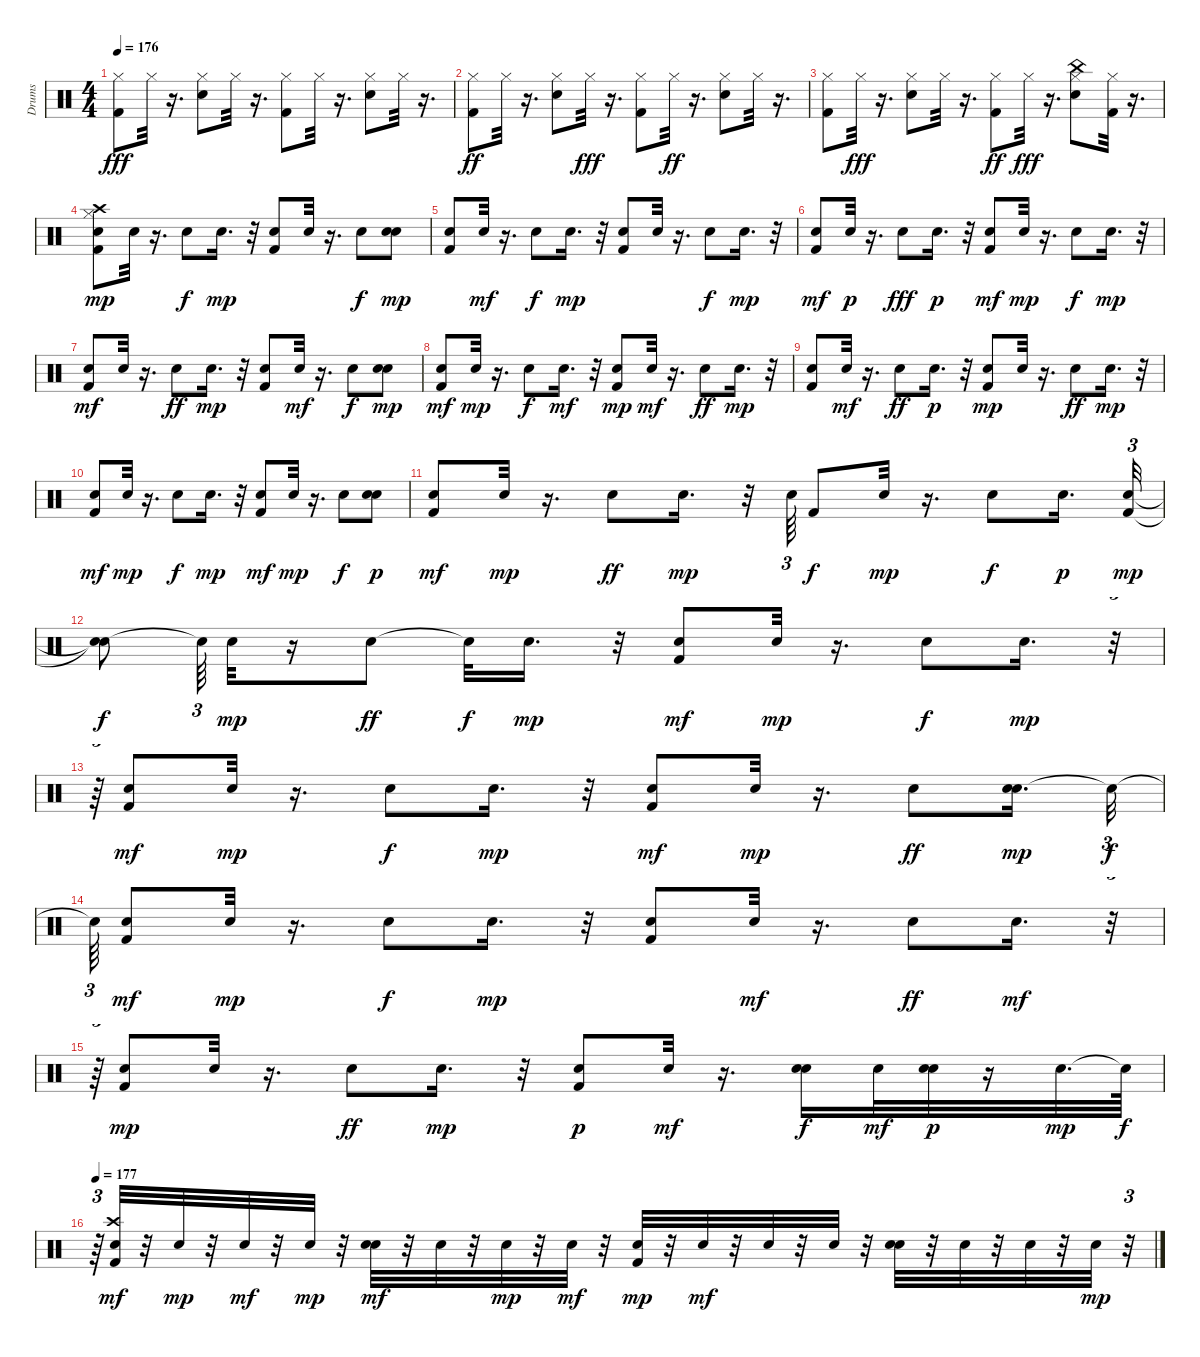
\track ("Drums" "Drums") {instrument percussion}
\staff {score}
\articulation defaults
\ts (4 4)
\tempo 176
\clef neutral
\ks c
("Hi-Hat (closed)" "Kick (hit) 2").8{dy fff} "Hi-Hat (closed)".32 r.16{d} ("Electric Snare (hit)" "Hi-Hat (closed)").8 "Hi-Hat (closed)".32 r.16{d} ("Kick (hit) 2" "Hi-Hat (closed)").8 "Hi-Hat (closed)".32 r.16{d} ("Hi-Hat (closed)" "Electric Snare (hit)").8 "Hi-Hat (closed)".32 r.16{d} |
("Hi-Hat (closed)" "Kick (hit) 2").8{dy ff} "Hi-Hat (closed)".32 r.16{d} ("Electric Snare (hit)" "Hi-Hat (closed)").8 "Hi-Hat (closed)".32{dy fff} r.16{d} ("Kick (hit) 2" "Hi-Hat (closed)").8 "Hi-Hat (closed)".32{dy ff} r.16{d} ("Electric Snare (hit)" "Hi-Hat (closed)").8 "Hi-Hat (closed)".32 r.16{d} |
("Hi-Hat (closed)" "Kick (hit) 2").8 "Hi-Hat (closed)".32{dy fff} r.16{d} ("Hi-Hat (closed)" "Electric Snare (hit)").8 "Hi-Hat (closed)".32 r.16{d} ("Hi-Hat (closed)" "Kick (hit) 2").8{dy ff} "Hi-Hat (closed)".32{dy fff} r.16{d} ("Hi-Hat (closed)" "Electric Snare (hit)" "China (hit)").8 ("Hi-Hat (closed)" "Kick (hit) 2").32 r.16{d} |
("Kick (hit) 2" "Crash high (hit)" "Hi-Hat (closed)" "Snare (hit) 2").8{dy mp} "Snare (hit) 2".32 r.16{d} "Snare (hit) 2".8{dy f} "Snare (hit) 2".16{d dy mp} r.32 ("Kick (hit) 2" "Snare (hit) 2").8 "Snare (hit) 2".32 r.16{d} "Snare (hit) 2".8{dy f} ("Snare (hit) 2" "Snare (hit) 2").8{dy mp} |
("Kick (hit) 2" "Snare (hit) 2").8 "Snare (hit) 2".32{dy mf} r.16{d} "Snare (hit) 2".8{dy f} "Snare (hit) 2".16{d dy mp} r.32 ("Kick (hit) 2" "Snare (hit) 2").8 "Snare (hit) 2".32 r.16{d} "Snare (hit) 2".8{dy f} "Snare (hit) 2".16{d dy mp} r.32 |
("Snare (hit) 2" "Kick (hit) 2").8{dy mf} "Snare (hit) 2".32{dy p} r.16{d} "Snare (hit) 2".8{dy fff} "Snare (hit) 2".16{d dy p} r.32 ("Snare (hit) 2" "Kick (hit) 2").8{dy mf} "Snare (hit) 2".32{dy mp} r.16{d} "Snare (hit) 2".8{dy f} "Snare (hit) 2".16{d dy mp} r.32 |
("Kick (hit) 2" "Snare (hit) 2").8{dy mf} "Snare (hit) 2".32 r.16{d} "Snare (hit) 2".8{dy ff} "Snare (hit) 2".16{d dy mp} r.32 ("Kick (hit) 2" "Snare (hit) 2").8 "Snare (hit) 2".32{dy mf} r.16{d} "Snare (hit) 2".8{dy f} ("Snare (hit) 2" "Snare (hit) 2").8{dy mp} |
("Snare (hit) 2" "Kick (hit) 2").8{dy mf} "Snare (hit) 2".32{dy mp} r.16{d} "Snare (hit) 2".8{dy f} "Snare (hit) 2".16{d dy mf} r.32 ("Kick (hit) 2" "Snare (hit) 2").8{dy mp} "Snare (hit) 2".32{dy mf} r.16{d} "Snare (hit) 2".8{dy ff} "Snare (hit) 2".16{d dy mp} r.32 |
("Snare (hit) 2" "Kick (hit) 2").8 "Snare (hit) 2".32{dy mf} r.16{d} "Snare (hit) 2".8{dy ff} "Snare (hit) 2".16{d dy p} r.32 ("Kick (hit) 2" "Snare (hit) 2").8{dy mp} "Snare (hit) 2".32 r.16{d} "Snare (hit) 2".8{dy ff} "Snare (hit) 2".16{d dy mp} r.32 |
("Snare (hit) 2" "Kick (hit) 2").8{dy mf} "Snare (hit) 2".32{dy mp} r.16{d} "Snare (hit) 2".8{dy f} "Snare (hit) 2".16{d dy mp} r.32 ("Kick (hit) 2" "Snare (hit) 2").8{dy mf} "Snare (hit) 2".32{dy mp} r.16{d} "Snare (hit) 2".8{dy f} ("Snare (hit) 2" "Snare (hit) 2").8{dy p} |
("Snare (hit) 2" "Kick (hit) 2").8{dy mf} "Snare (hit) 2".32{dy mp} r.16{d} "Snare (hit) 2".8{dy ff} "Snare (hit) 2".16{d dy mp} r.32 "Snare (hit) 2".64{tu (3 2)} "Kick (hit) 2".8{dy f} "Snare (hit) 2".32{dy mp} r.16{d} "Snare (hit) 2".8{dy f} "Snare (hit) 2".16{d dy p} ("Kick (hit) 2" "Snare (hit) 2").32{tu (3 2) dy mp} |
("Snare (hit)"{t} "Snare (hit)"{t}).8{dy f} "Snare (hit)"{t}.64{tu (3 2) beam splitsecondary} "Snare (hit) 2".32{dy mp} r.16 "Snare (hit) 2".8{dy ff} "Snare (hit)"{t}.32{dy f} "Snare (hit) 2".16{d dy mp} r.32 ("Kick (hit) 2" "Snare (hit) 2").8{dy mf} "Snare (hit) 2".32{dy mp} r.16{d} "Snare (hit) 2".8{dy f} "Snare (hit) 2".16{d dy mp} r.32{tu (3 2)} |
r.64{tu (3 2)} ("Snare (hit) 2" "Kick (hit) 2").8{dy mf} "Snare (hit) 2".32{dy mp} r.16{d} "Snare (hit) 2".8{dy f} "Snare (hit) 2".16{d dy mp} r.32 ("Snare (hit) 2" "Kick (hit) 2").8{dy mf} "Snare (hit) 2".32{dy mp} r.16{d} "Snare (hit) 2".8{dy ff} ("Snare (hit) 2" "Snare (hit) 2").16{d dy mp} "Snare (hit)"{t}.32{tu (3 2) dy f} |
"Snare (hit)"{t}.64{tu (3 2)} ("Snare (hit) 2" "Kick (hit) 2").8{dy mf} "Snare (hit) 2".32{dy mp} r.16{d} "Snare (hit) 2".8{dy f} "Snare (hit) 2".16{d dy mp} r.32 ("Kick (hit) 2" "Snare (hit) 2").8 "Snare (hit) 2".32{dy mf} r.16{d} "Snare (hit) 2".8{dy ff} "Snare (hit) 2".16{d dy mf} r.32{tu (3 2)} |
r.64{tu (3 2)} ("Snare (hit) 2" "Kick (hit) 2").8{dy mp} "Snare (hit) 2".32 r.16{d} "Snare (hit) 2".8{dy ff} "Snare (hit) 2".16{d dy mp} r.32 ("Kick (hit) 2" "Snare (hit) 2").8{dy p} "Snare (hit) 2".32{dy mf} r.16{d} ("Snare (hit) 2" "Snare (hit) 2").16{dy f} "Snare (hit) 2".32{dy mf} ("Snare (hit) 2" "Snare (hit) 2").32{dy p} r.16 "Snare (hit) 2".32{d dy mp} "Snare (hit)"{t}.64{dy f} |
\tempo 177
r.64{tu (3 2)} ("Crash high (hit)" "Snare (hit) 2" "Kick (hit) 2").32{dy mf} r.32 "Snare (hit) 2".32{dy mp} r.32 "Snare (hit) 2".32{dy mf} r.32 "Snare (hit) 2".32{dy mp} r.32 ("Electric Snare (hit)" "Snare (hit) 2").32{dy mf} r.32 "Snare (hit) 2".32 r.32 "Snare (hit) 2".32{dy mp} r.32 "Snare (hit) 2".32{dy mf} r.32 ("Kick (hit) 2" "Snare (hit) 2").32{dy mp} r.32 "Snare (hit) 2".32{dy mf} r.32 "Snare (hit) 2".32 r.32 "Snare (hit) 2".32 r.32 ("Electric Snare (hit)" "Snare (hit) 2").32 r.32 "Snare (hit) 2".32 r.32 "Snare (hit) 2".32 r.32 "Snare (hit) 2".32{dy mp} r.32{tu (3 2)}
